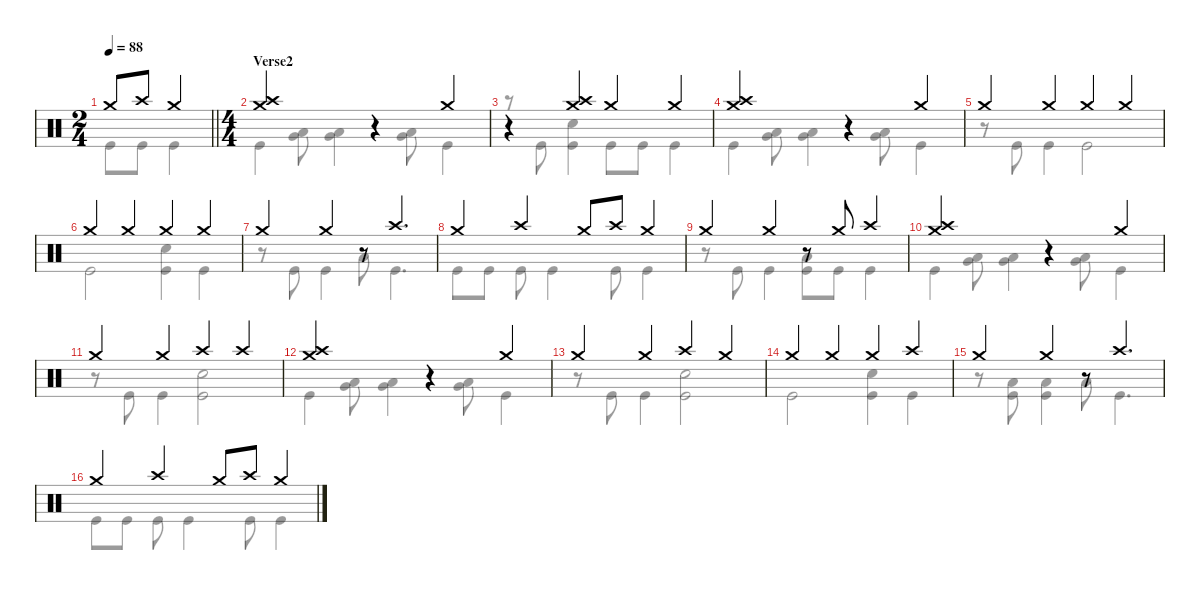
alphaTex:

\defaultSystemsLayout 4
\hideDynamics
\bracketExtendMode nobrackets
\singleTrackTrackNamePolicy hidden
\multiTrackTrackNamePolicy hidden
\firstSystemTrackNameMode fullname
\otherSystemsTrackNameOrientation horizontal
\track ("Drums" "drm.") {instrument percussion}
\staff {score}
\articulation defaults
\voice
\ts (2 4)
\beaming (8 2 2)
\tempo 88
\clef neutral
\barLineRight lightlight
\ks c "Crash medium (hit)".8{dy mp beam Up} "Crash high (hit)".8{dy f beam Up} "Crash medium (hit)".4{dy mp beam Up}
|
\ts (4 4)
\beaming (8 2 2 2 2)
\section ("" "Verse2")
("Crash medium (hit)" "Crash high (hit)").2{dy f beam Up} r.4{beam Up} "Crash medium (hit)".4{beam Up} |
r.4{beam Up} ("Crash medium (hit)" "Crash high (hit)").4{beam Up} "Crash medium (hit)".4{beam Up} "Crash medium (hit)".4{beam Up} |
("Crash medium (hit)" "Crash high (hit)").2{beam Up} r.4{beam Up} "Crash medium (hit)".4{beam Up} |
"Crash medium (hit)".4{beam Up} "Crash medium (hit)".4{beam Up} "Crash medium (hit)".4{beam Up} "Crash medium (hit)".4{beam Up} |
"Crash medium (hit)".4{beam Up} "Crash medium (hit)".4{beam Up} "Crash medium (hit)".4{beam Up} "Crash medium (hit)".4{beam Up} |
"Crash medium (hit)".4{beam Up} "Crash medium (hit)".4{beam Up} r.8{beam Up} "Crash high (hit)".4{d beam Up} |
"Crash medium (hit)".4{beam Up} "Crash high (hit)".4{beam Up} "Crash medium (hit)".8{beam Up} "Crash high (hit)".8{beam Up} "Crash medium (hit)".4{beam Up} |
"Crash medium (hit)".4{beam Up} "Crash medium (hit)".4{beam Up} r.8{beam Up} "Crash medium (hit)".8{beam Up} "Crash high (hit)".4{beam Up} |
("Crash medium (hit)" "Crash high (hit)").2{beam Up} r.4{beam Up} "Crash medium (hit)".4{beam Up} |
"Crash medium (hit)".4{beam Up} "Crash medium (hit)".4{beam Up} "Crash high (hit)".4{beam Up} "Crash high (hit)".4{beam Up} |
("Crash medium (hit)" "Crash high (hit)").2{beam Up} r.4{beam Up} "Crash medium (hit)".4{beam Up} |
"Crash medium (hit)".4{beam Up} "Crash medium (hit)".4{beam Up} "Crash high (hit)".4{beam Up} "Crash medium (hit)".4{beam Up} |
"Crash medium (hit)".4{beam Up} "Crash medium (hit)".4{beam Up} "Crash medium (hit)".4{beam Up} "Crash high (hit)".4{beam Up} |
"Crash medium (hit)".4{beam Up} "Crash medium (hit)".4{beam Up} r.8{beam Up} "Crash high (hit)".4{d beam Up} |
"Crash medium (hit)".4{beam Up} "Crash high (hit)".4{beam Up} "Crash medium (hit)".8{beam Up} "Crash high (hit)".8{beam Up} "Crash medium (hit)".4{beam Up}
\voice
\clef neutral
\ottava regular
\simile none
\barLineRight lightlight
\ks c "Kick (hit)".8{dy f beam Down} "Kick (hit)".8{beam Down} "Kick (hit)".4{beam Down}
|
"Kick (hit)".4{beam Down} ("Very Low Tom (hit)" "Low Floor Tom (hit)").8{beam Down} ("Very Low Tom (hit)" "Low Floor Tom (hit)").4{beam Down} ("Very Low Tom (hit)" "Low Floor Tom (hit)").8{beam Down} "Kick (hit)".4{beam Down} |
r.8{beam Down} "Kick (hit)".8{beam Down} ("Snare (hit) 2" "Kick (hit)").4{beam Down} "Kick (hit)".8{beam Down} "Kick (hit)".8{beam Down} "Kick (hit)".4{beam Down} |
"Kick (hit)".4{beam Down} ("Very Low Tom (hit)" "Low Floor Tom (hit)").8{beam Down} ("Very Low Tom (hit)" "Low Floor Tom (hit)").4{beam Down} ("Very Low Tom (hit)" "Low Floor Tom (hit)").8{beam Down} "Kick (hit)".4{beam Down} |
r.8{beam Down} "Kick (hit)".8{beam Down} "Kick (hit)".4{beam Down} "Kick (hit)".2{beam Down} |
"Kick (hit)".2{beam Down} ("Snare (hit) 2" "Kick (hit)").4{beam Down} "Kick (hit)".4{beam Down} |
r.8{beam Down} "Kick (hit)".8{beam Down} "Kick (hit)".4{beam Down} "Low Floor Tom (hit)".8{beam Down} "Kick (hit)".4{d beam Down} |
"Kick (hit)".8{beam Down} "Kick (hit)".8{beam Down} "Kick (hit)".8{beam Down} "Kick (hit)".4{beam Down} "Kick (hit)".8{beam Down} "Kick (hit)".4{beam Down} |
r.8{beam Down} "Kick (hit)".8{beam Down} "Kick (hit)".4{beam Down} ("Low Floor Tom (hit)" "Kick (hit)").8{beam Down} "Kick (hit)".8{beam Down} "Kick (hit)".4{beam Down} |
"Kick (hit)".4{beam Down} ("Very Low Tom (hit)" "Low Floor Tom (hit)").8{beam Down} ("Very Low Tom (hit)" "Low Floor Tom (hit)").4{beam Down} ("Very Low Tom (hit)" "Low Floor Tom (hit)").8{beam Down} "Kick (hit)".4{beam Down} |
r.8{beam Down} "Kick (hit)".8{beam Down} "Kick (hit)".4{beam Down} ("Snare (hit) 2" "Kick (hit)").2{beam Down} |
"Kick (hit)".4{beam Down} ("Very Low Tom (hit)" "Low Floor Tom (hit)").8{beam Down} ("Very Low Tom (hit)" "Low Floor Tom (hit)").4{beam Down} ("Very Low Tom (hit)" "Low Floor Tom (hit)").8{beam Down} "Kick (hit)".4{beam Down} |
r.8{beam Down} "Kick (hit)".8{beam Down} "Kick (hit)".4{beam Down} ("Snare (hit) 2" "Kick (hit)").2{beam Down} |
"Kick (hit)".2{beam Down} ("Snare (hit) 2" "Kick (hit)").4{beam Down} "Kick (hit)".4{beam Down} |
r.8{beam Down} ("Low Floor Tom (hit)" "Kick (hit)").8{beam Down} ("Low Floor Tom (hit)" "Kick (hit)").4{beam Down} "Low Floor Tom (hit)".8{beam Down} "Kick (hit)".4{d beam Down} |
"Kick (hit)".8{beam Down} "Kick (hit)".8{beam Down} "Kick (hit)".8{beam Down} "Kick (hit)".4{beam Down} "Kick (hit)".8{beam Down} "Kick (hit)".4{beam Down}
